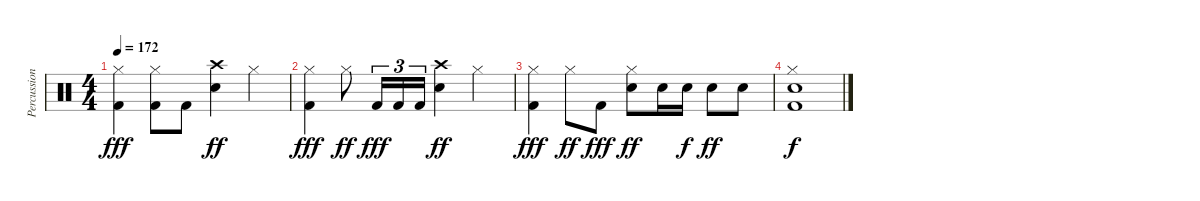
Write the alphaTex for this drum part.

\track ("Percussion" "Percussion") {instrument percussion}
\staff {score}
\articulation defaults
\ts (4 4)
\tempo 172
\clef neutral
\ks c
("Hi-Hat (closed)" "Kick (hit) 2").4{dy fff} ("Hi-Hat (closed)" "Kick (hit) 2").8 "Kick (hit) 2".8 ("Crash high (hit)" "Snare (hit) 2").4{dy ff} "Hi-Hat (closed)".4 |
("Hi-Hat (closed)" "Kick (hit) 2").4{dy fff} "Hi-Hat (closed)".8{dy ff} "Kick (hit) 2".16{tu (3 2) dy fff} "Kick (hit) 2".16{tu (3 2)} "Kick (hit) 2".16{tu (3 2)} ("Crash high (hit)" "Snare (hit) 2").4{dy ff} "Hi-Hat (closed)".4 |
("Hi-Hat (closed)" "Kick (hit) 2").4{dy fff} "Hi-Hat (closed)".8{dy ff} "Kick (hit) 2".8{dy fff} ("Hi-Hat (closed)" "Snare (hit) 2").8{dy ff} "Snare (hit) 2".16 "Snare (hit) 2".16{dy f} "Snare (hit) 2".8{dy ff} "Snare (hit) 2".8 |
("Hi-Hat (closed)" "Snare (hit) 2" "Kick (hit) 2").1{dy f}
